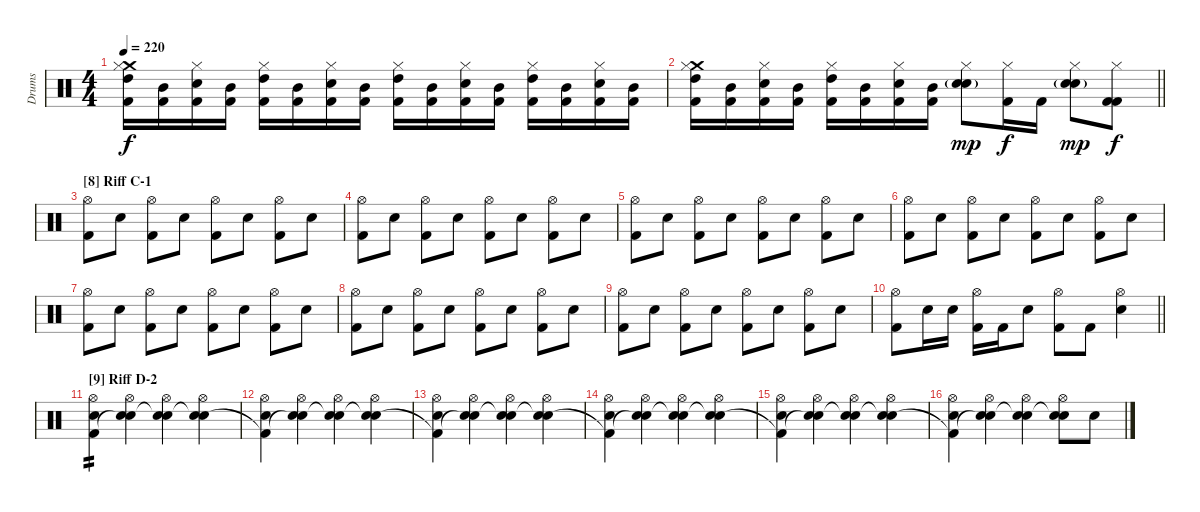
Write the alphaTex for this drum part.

\track ("Drums" "Drums") {instrument percussion}
\staff {score}
\articulation defaults
\ts (4 4)
\tempo 220
\clef neutral
\ks c
("Crash medium (hit)" "Hi-Hat (closed)" "High Tom (hit)" "Kick (hit) 2").16{dy f} ("Mid Tom (hit)" "Kick (hit) 2").16 ("Hi-Hat (closed)" "Electric Snare (hit)" "Kick (hit) 2").16 ("Mid Tom (hit)" "Kick (hit) 2").16 ("Hi-Hat (closed)" "High Tom (hit)" "Kick (hit) 2").16 ("Mid Tom (hit)" "Kick (hit) 2").16 ("Hi-Hat (closed)" "Electric Snare (hit)" "Kick (hit) 2").16 ("Mid Tom (hit)" "Kick (hit) 2").16 ("Hi-Hat (closed)" "High Tom (hit)" "Kick (hit) 2").16 ("Mid Tom (hit)" "Kick (hit) 2").16 ("Hi-Hat (closed)" "Electric Snare (hit)" "Kick (hit) 2").16 ("Mid Tom (hit)" "Kick (hit) 2").16 ("Hi-Hat (closed)" "High Tom (hit)" "Kick (hit) 2").16 ("Mid Tom (hit)" "Kick (hit) 2").16 ("Hi-Hat (closed)" "Electric Snare (hit)" "Kick (hit) 2").16 ("Mid Tom (hit)" "Kick (hit) 2").16 |
\barLineRight lightlight
("Crash medium (hit)" "Hi-Hat (closed)" "High Tom (hit)" "Kick (hit) 2").16 ("Mid Tom (hit)" "Kick (hit) 2").16 ("Hi-Hat (closed)" "Electric Snare (hit)" "Kick (hit) 2").16 ("Mid Tom (hit)" "Kick (hit) 2").16 ("Hi-Hat (closed)" "High Tom (hit)" "Kick (hit) 2").16 ("Mid Tom (hit)" "Kick (hit) 2").16 ("Hi-Hat (closed)" "Electric Snare (hit)" "Kick (hit) 2").16 ("Mid Tom (hit)" "Kick (hit) 2").16 ("Hi-Hat (closed)" "Electric Snare (hit)"{g} "Snare (hit) 2").8{dy mp} ("Hi-Hat (closed)" "Kick (hit) 2").16{dy f} "Kick (hit) 2".16 ("Hi-Hat (closed)" "Electric Snare (hit)"{g} "Snare (hit) 2").8{dy mp} ("Hi-Hat (closed)" "Kick (hit) 2" "Kick (hit) 2").8{dy f} |
\section ("" "[8] Riff C-1")
("Hi-Hat (open)" "Kick (hit) 2").8 "Snare (hit) 2".8 ("Hi-Hat (open)" "Kick (hit) 2").8 "Snare (hit) 2".8 ("Hi-Hat (open)" "Kick (hit) 2").8 "Snare (hit) 2".8 ("Hi-Hat (open)" "Kick (hit) 2").8 "Snare (hit) 2".8 |
("Hi-Hat (open)" "Kick (hit) 2").8 "Snare (hit) 2".8 ("Hi-Hat (open)" "Kick (hit) 2").8 "Snare (hit) 2".8 ("Hi-Hat (open)" "Kick (hit) 2").8 "Snare (hit) 2".8 ("Hi-Hat (open)" "Kick (hit) 2").8 "Snare (hit) 2".8 |
("Hi-Hat (open)" "Kick (hit) 2").8 "Snare (hit) 2".8 ("Hi-Hat (open)" "Kick (hit) 2").8 "Snare (hit) 2".8 ("Hi-Hat (open)" "Kick (hit) 2").8 "Snare (hit) 2".8 ("Hi-Hat (open)" "Kick (hit) 2").8 "Snare (hit) 2".8 |
("Hi-Hat (open)" "Kick (hit) 2").8 "Snare (hit) 2".8 ("Hi-Hat (open)" "Kick (hit) 2").8 "Snare (hit) 2".8 ("Hi-Hat (open)" "Kick (hit) 2").8 "Snare (hit) 2".8 ("Hi-Hat (open)" "Kick (hit) 2").8 "Snare (hit) 2".8 |
("Hi-Hat (open)" "Kick (hit) 2").8 "Snare (hit) 2".8 ("Hi-Hat (open)" "Kick (hit) 2").8 "Snare (hit) 2".8 ("Hi-Hat (open)" "Kick (hit) 2").8 "Snare (hit) 2".8 ("Hi-Hat (open)" "Kick (hit) 2").8 "Snare (hit) 2".8 |
("Hi-Hat (open)" "Kick (hit) 2").8 "Snare (hit) 2".8 ("Hi-Hat (open)" "Kick (hit) 2").8 "Snare (hit) 2".8 ("Hi-Hat (open)" "Kick (hit) 2").8 "Snare (hit) 2".8 ("Hi-Hat (open)" "Kick (hit) 2").8 "Snare (hit) 2".8 |
("Hi-Hat (open)" "Kick (hit) 2").8 "Snare (hit) 2".8 ("Hi-Hat (open)" "Kick (hit) 2").8 "Snare (hit) 2".8 ("Hi-Hat (open)" "Kick (hit) 2").8 "Snare (hit) 2".8 ("Hi-Hat (open)" "Kick (hit) 2").8 "Snare (hit) 2".8 |
\barLineRight lightlight
("Hi-Hat (open)" "Kick (hit) 2").8 "Snare (hit) 2".16 "Snare (hit) 2".16 ("Hi-Hat (open)" "Kick (hit) 2").16 "Kick (hit) 2".16 "Snare (hit) 2".8 ("Hi-Hat (open)" "Kick (hit) 2").8 "Kick (hit) 2".8 ("Hi-Hat (open)" "Snare (hit) 2").4 |
\section ("" "[9] Riff D-2")
("Hi-Hat (open)" "Snare (hit) 2" "Kick (hit) 2").4{tp 2} ("Hi-Hat (open)" "Snare (hit) 2" "Snare (hit)"{t}).4 ("Hi-Hat (open)" "Snare (hit) 2" "Snare (hit)"{t}).4 ("Hi-Hat (open)" "Snare (hit) 2" "Snare (hit)"{t}).4 |
("Hi-Hat (open)" "Snare (hit) 2" "Kick (hit) 2"{t}).4 ("Hi-Hat (open)" "Snare (hit) 2" "Snare (hit)"{t}).4 ("Hi-Hat (open)" "Snare (hit) 2" "Snare (hit)"{t}).4 ("Hi-Hat (open)" "Snare (hit) 2" "Snare (hit)"{t}).4 |
("Hi-Hat (open)" "Snare (hit) 2" "Kick (hit) 2"{t}).4 ("Hi-Hat (open)" "Snare (hit) 2" "Snare (hit)"{t}).4 ("Hi-Hat (open)" "Snare (hit) 2" "Snare (hit)"{t}).4 ("Hi-Hat (open)" "Snare (hit) 2" "Snare (hit)"{t}).4 |
("Hi-Hat (open)" "Snare (hit) 2" "Kick (hit) 2"{t}).4 ("Hi-Hat (open)" "Snare (hit) 2" "Snare (hit)"{t}).4 ("Hi-Hat (open)" "Snare (hit) 2" "Snare (hit)"{t}).4 ("Hi-Hat (open)" "Snare (hit) 2" "Snare (hit)"{t}).4 |
("Hi-Hat (open)" "Snare (hit) 2" "Kick (hit) 2"{t}).4 ("Hi-Hat (open)" "Snare (hit) 2" "Snare (hit)"{t}).4 ("Hi-Hat (open)" "Snare (hit) 2" "Snare (hit)"{t}).4 ("Hi-Hat (open)" "Snare (hit) 2" "Snare (hit)"{t}).4 |
("Hi-Hat (open)" "Snare (hit) 2" "Kick (hit) 2"{t}).4 ("Hi-Hat (open)" "Snare (hit) 2" "Snare (hit)"{t}).4 ("Hi-Hat (open)" "Snare (hit) 2" "Snare (hit)"{t}).4 ("Hi-Hat (open)" "Snare (hit) 2" "Snare (hit)"{t}).8 "Snare (hit) 2".8
